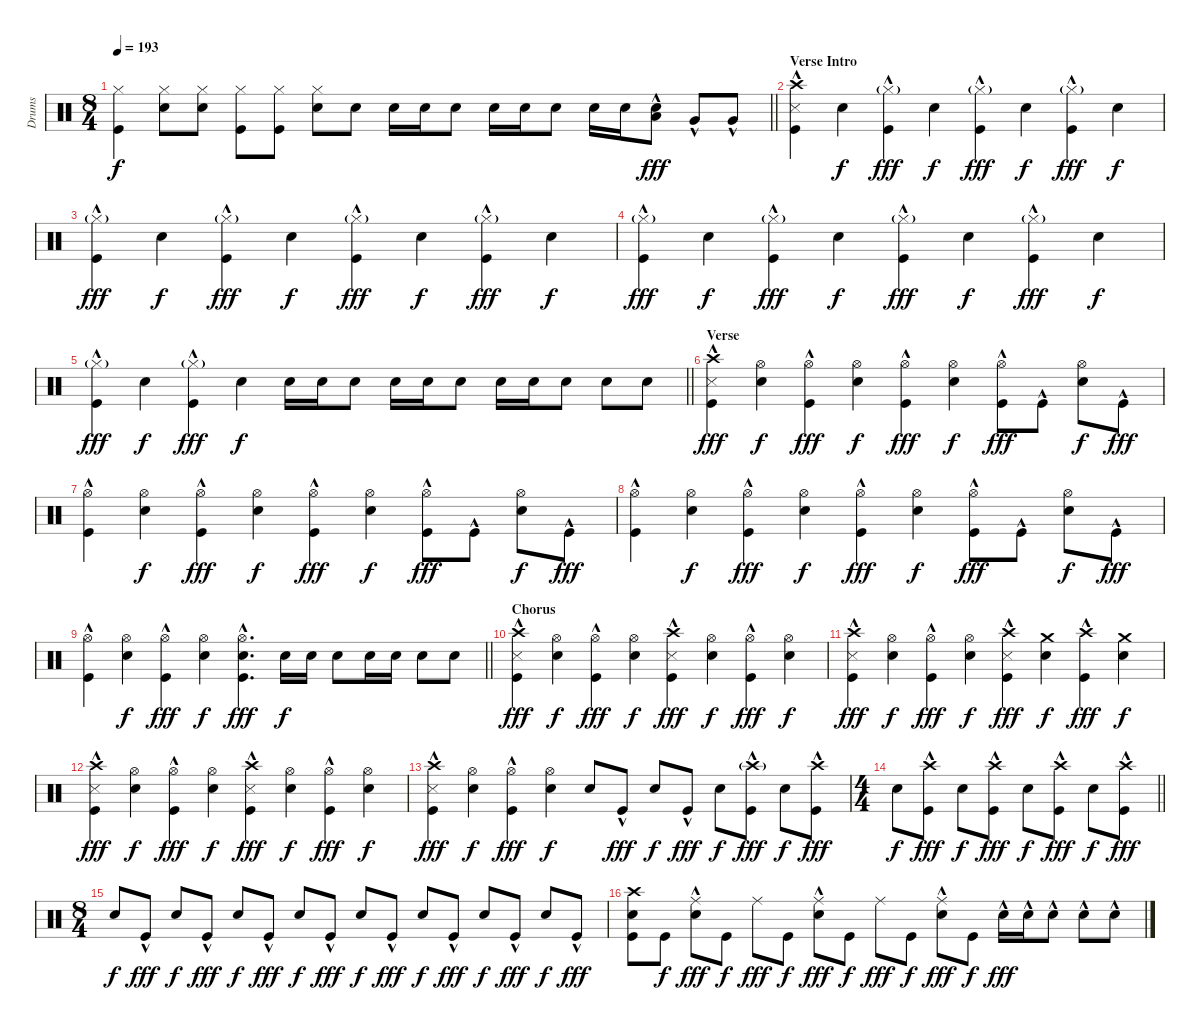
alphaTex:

\track ("Drums" "Drums") {instrument percussion}
\staff {score}
\articulation defaults
\ts (8 4)
\tempo 193
\clef neutral
\barLineRight lightlight
\ks c
("Hi-Hat (closed)" "Kick (hit)").4{dy f} ("Hi-Hat (closed)" "Snare (hit) 2").8 ("Hi-Hat (closed)" "Snare (hit) 2").8 ("Hi-Hat (closed)" "Kick (hit)").8 ("Hi-Hat (closed)" "Kick (hit)").8 ("Hi-Hat (closed)" "Snare (hit) 2").8 "Snare (hit) 2".8 "Snare (hit) 2".16 "Snare (hit) 2".16 "Snare (hit) 2".8 "Snare (hit) 2".16 "Snare (hit) 2".16 "Snare (hit) 2".8 "Snare (hit) 2".16 "Snare (hit) 2".16 ("Snare (hit) 2" "Low Tom (hit)"{hac}).8{dy fff} "Very Low Tom (hit)"{hac}.8 "Very Low Tom (hit)"{hac}.8 |
\section ("" "Verse Intro")
("Snare (side stick) 3" "Crash high (hit)" "Kick (hit)"{hac}).4 "Snare (hit) 2".4{dy f} ("Hi-Hat (closed)"{g} "Kick (hit)"{hac}).4{dy fff} "Snare (hit) 2".4{dy f} ("Hi-Hat (closed)"{g} "Kick (hit)"{hac}).4{dy fff} "Snare (hit) 2".4{dy f} ("Hi-Hat (closed)"{g} "Kick (hit)"{hac}).4{dy fff} "Snare (hit) 2".4{dy f} |
("Hi-Hat (closed)"{g} "Kick (hit)"{hac}).4{dy fff} "Snare (hit) 2".4{dy f} ("Hi-Hat (closed)"{g} "Kick (hit)"{hac}).4{dy fff} "Snare (hit) 2".4{dy f} ("Hi-Hat (closed)"{g} "Kick (hit)"{hac}).4{dy fff} "Snare (hit) 2".4{dy f} ("Hi-Hat (closed)"{g} "Kick (hit)"{hac}).4{dy fff} "Snare (hit) 2".4{dy f} |
("Hi-Hat (closed)"{g} "Kick (hit)"{hac}).4{dy fff} "Snare (hit) 2".4{dy f} ("Hi-Hat (closed)"{g} "Kick (hit)"{hac}).4{dy fff} "Snare (hit) 2".4{dy f} ("Hi-Hat (closed)"{g} "Kick (hit)"{hac}).4{dy fff} "Snare (hit) 2".4{dy f} ("Hi-Hat (closed)"{g} "Kick (hit)"{hac}).4{dy fff} "Snare (hit) 2".4{dy f} |
\barLineRight lightlight
("Hi-Hat (closed)"{g} "Kick (hit)"{hac}).4{dy fff} "Snare (hit) 2".4{dy f} ("Hi-Hat (closed)"{g} "Kick (hit)"{hac}).4{dy fff} "Snare (hit) 2".4{dy f} "Snare (hit) 2".16 "Snare (hit) 2".16 "Snare (hit) 2".8 "Snare (hit) 2".16 "Snare (hit) 2".16 "Snare (hit) 2".8 "Snare (hit) 2".16 "Snare (hit) 2".16 "Snare (hit) 2".8 "Snare (hit) 2".8 "Snare (hit) 2".8 |
\section ("" "Verse")
("Snare (side stick) 3" "Crash high (hit)" "Kick (hit)"{hac}).4{dy fff} ("Hi-Hat (open)" "Snare (hit) 2").4{dy f} ("Hi-Hat (open)" "Kick (hit)"{hac}).4{dy fff} ("Hi-Hat (open)" "Snare (hit) 2").4{dy f} ("Hi-Hat (open)" "Kick (hit)"{hac}).4{dy fff} ("Hi-Hat (open)" "Snare (hit) 2").4{dy f} ("Hi-Hat (open)" "Kick (hit)"{hac}).8{dy fff} "Kick (hit)"{hac}.8 ("Hi-Hat (open)" "Snare (hit) 2").8{dy f} "Kick (hit)"{hac}.8{dy fff} |
("Hi-Hat (open)" "Kick (hit)"{hac}).4 ("Hi-Hat (open)" "Snare (hit) 2").4{dy f} ("Hi-Hat (open)" "Kick (hit)"{hac}).4{dy fff} ("Hi-Hat (open)" "Snare (hit) 2").4{dy f} ("Hi-Hat (open)" "Kick (hit)"{hac}).4{dy fff} ("Hi-Hat (open)" "Snare (hit) 2").4{dy f} ("Hi-Hat (open)" "Kick (hit)"{hac}).8{dy fff} "Kick (hit)"{hac}.8 ("Hi-Hat (open)" "Snare (hit) 2").8{dy f} "Kick (hit)"{hac}.8{dy fff} |
("Hi-Hat (open)" "Kick (hit)"{hac}).4 ("Hi-Hat (open)" "Snare (hit) 2").4{dy f} ("Hi-Hat (open)" "Kick (hit)"{hac}).4{dy fff} ("Hi-Hat (open)" "Snare (hit) 2").4{dy f} ("Hi-Hat (open)" "Kick (hit)"{hac}).4{dy fff} ("Hi-Hat (open)" "Snare (hit) 2").4{dy f} ("Hi-Hat (open)" "Kick (hit)"{hac}).8{dy fff} "Kick (hit)"{hac}.8 ("Hi-Hat (open)" "Snare (hit) 2").8{dy f} "Kick (hit)"{hac}.8{dy fff} |
\barLineRight lightlight
("Hi-Hat (open)" "Kick (hit)"{hac}).4 ("Hi-Hat (open)" "Snare (hit) 2").4{dy f} ("Hi-Hat (open)" "Kick (hit)"{hac}).4{dy fff} ("Hi-Hat (open)" "Snare (hit) 2").4{dy f} ("Hi-Hat (open)" "Snare (hit) 2" "Kick (hit)"{hac}).4{d dy fff} "Snare (hit) 2".16{dy f} "Snare (hit) 2".16 "Snare (hit) 2".8 "Snare (hit) 2".16 "Snare (hit) 2".16 "Snare (hit) 2".8 "Snare (hit) 2".8 |
\section ("" "Chorus")
("Snare (side stick) 3" "Crash high (hit)" "Kick (hit)"{hac}).4{dy fff} ("Hi-Hat (open)" "Snare (hit) 2").4{dy f} ("Hi-Hat (open)" "Kick (hit)"{hac}).4{dy fff} ("Hi-Hat (open)" "Snare (hit) 2").4{dy f} ("Snare (side stick) 3" "Crash high (hit)" "Kick (hit)"{hac}).4{dy fff} ("Hi-Hat (open)" "Snare (hit) 2").4{dy f} ("Hi-Hat (open)" "Kick (hit)"{hac}).4{dy fff} ("Hi-Hat (open)" "Snare (hit) 2").4{dy f} |
("Snare (side stick) 3" "Crash high (hit)" "Kick (hit)"{hac}).4{dy fff} ("Hi-Hat (open)" "Snare (hit) 2").4{dy f} ("Hi-Hat (open)" "Kick (hit)"{hac}).4{dy fff} ("Hi-Hat (open)" "Snare (hit) 2").4{dy f} ("Snare (side stick) 3" "Crash high (hit)" "Kick (hit)"{hac}).4{dy fff} ("Crash medium (hit)" "Snare (hit) 2").4{dy f} ("Crash high (hit)" "Kick (hit)"{hac}).4{dy fff} ("Crash medium (hit)" "Snare (hit) 2").4{dy f} |
("Snare (side stick) 3" "Crash high (hit)" "Kick (hit)"{hac}).4{dy fff} ("Hi-Hat (open)" "Snare (hit) 2").4{dy f} ("Hi-Hat (open)" "Kick (hit)"{hac}).4{dy fff} ("Hi-Hat (open)" "Snare (hit) 2").4{dy f} ("Snare (side stick) 3" "Crash high (hit)" "Kick (hit)"{hac}).4{dy fff} ("Hi-Hat (open)" "Snare (hit) 2").4{dy f} ("Hi-Hat (open)" "Kick (hit)"{hac}).4{dy fff} ("Hi-Hat (open)" "Snare (hit) 2").4{dy f} |
("Snare (side stick) 3" "Crash high (hit)" "Kick (hit)"{hac}).4{dy fff} ("Hi-Hat (open)" "Snare (hit) 2").4{dy f} ("Hi-Hat (open)" "Kick (hit)"{hac}).4{dy fff} ("Hi-Hat (open)" "Snare (hit) 2").4{dy f} "Snare (hit) 2".8 "Kick (hit)"{hac}.8{dy fff} "Snare (hit) 2".8{dy f} "Kick (hit)"{hac}.8{dy fff} "Snare (hit) 2".8{dy f} ("Crash high (hit)"{g} "Kick (hit)"{hac}).8{dy fff} "Snare (hit) 2".8{dy f} ("Crash high (hit)" "Kick (hit)"{hac}).8{dy fff} |
\ts (4 4)
\barLineRight lightlight "Snare (hit) 2".8{dy f}
("Crash high (hit)" "Kick (hit)"{hac}).8{dy fff} "Snare (hit) 2".8{dy f} ("Crash high (hit)" "Kick (hit)"{hac}).8{dy fff} "Snare (hit) 2".8{dy f} ("Crash high (hit)" "Kick (hit)"{hac}).8{dy fff} "Snare (hit) 2".8{dy f} ("Crash high (hit)" "Kick (hit)"{hac}).8{dy fff} |
\ts (8 4)
\section ("" "")
"Snare (hit) 2".8{dy f} "Kick (hit)"{hac}.8{dy fff} "Snare (hit) 2".8{dy f} "Kick (hit)"{hac}.8{dy fff} "Snare (hit) 2".8{dy f} "Kick (hit)"{hac}.8{dy fff} "Snare (hit) 2".8{dy f} "Kick (hit)"{hac}.8{dy fff} "Snare (hit) 2".8{dy f} "Kick (hit)"{hac}.8{dy fff} "Snare (hit) 2".8{dy f} "Kick (hit)"{hac}.8{dy fff} "Snare (hit) 2".8{dy f} "Kick (hit)"{hac}.8{dy fff} "Snare (hit) 2".8{dy f} "Kick (hit)"{hac}.8{dy fff} |
("Crash high (hit)" "Snare (hit) 2" "Kick (hit)").8 "Kick (hit)".8{dy f} ("Ride (middle)" "Snare (hit) 2"{hac}).8{dy fff} "Kick (hit)".8{dy f} "Ride (middle)".8{dy fff} "Kick (hit)".8{dy f} ("Ride (middle)" "Snare (hit) 2"{hac}).8{dy fff} "Kick (hit)".8{dy f} "Ride (middle)".8{dy fff} "Kick (hit)".8{dy f} ("Ride (middle)" "Snare (hit) 2"{hac}).8{dy fff} "Kick (hit)".8{dy f} "Snare (hit) 2"{hac}.16{dy fff} "Snare (hit) 2"{hac}.16 "Snare (hit) 2"{hac}.8 "Snare (hit) 2"{hac}.8 "Snare (hit) 2"{hac}.8
